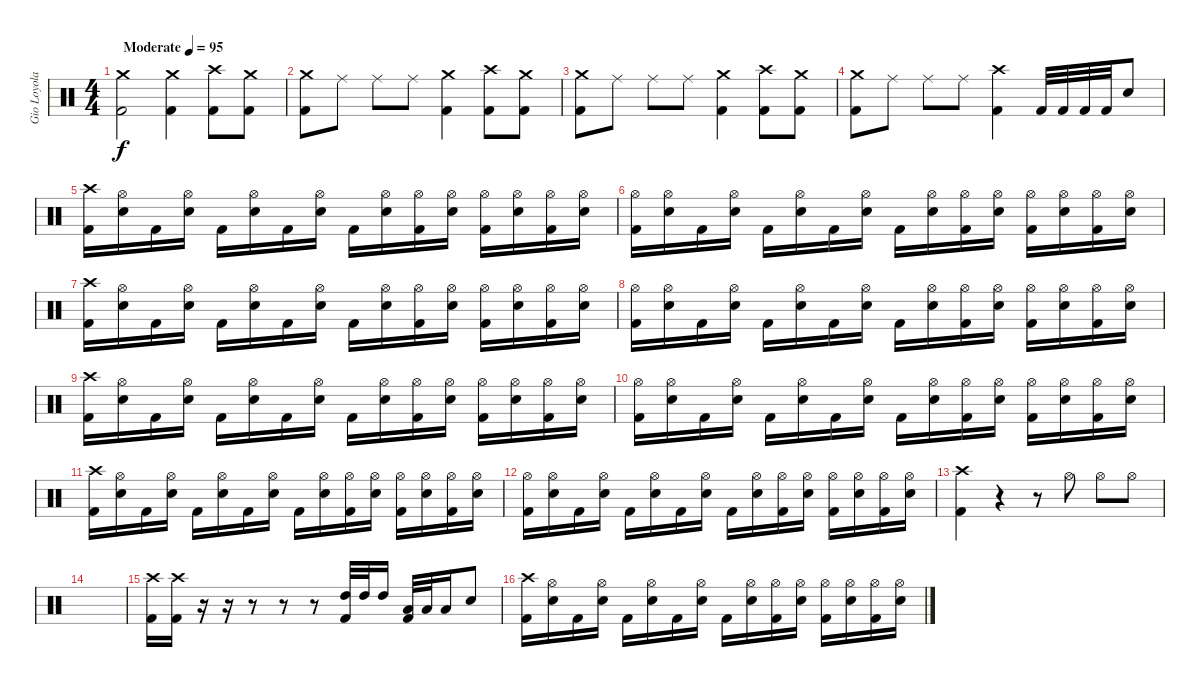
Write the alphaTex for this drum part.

\track ("Gio Loyola" "Gio Loyola") {instrument percussion}
\staff {score}
\articulation defaults
\ts (4 4)
\tempo (95 "Moderate")
\clef neutral
\ks c
("Crash medium (hit)" "Kick (hit) 2").2{dy f} ("Crash medium (hit)" "Kick (hit) 2").4 ("Crash high (hit)" "Kick (hit) 2").8 ("Crash medium (hit)" "Kick (hit) 2").8 |
("Crash medium (hit)" "Kick (hit) 2").8 "Ride (middle)".8 "Ride (middle)".8 "Ride (middle)".8 ("Crash medium (hit)" "Kick (hit) 2").4 ("Crash high (hit)" "Kick (hit) 2").8 ("Crash medium (hit)" "Kick (hit) 2").8 |
("Crash medium (hit)" "Kick (hit) 2").8 "Ride (middle)".8 "Ride (middle)".8 "Ride (middle)".8 ("Crash medium (hit)" "Kick (hit) 2").4 ("Crash high (hit)" "Kick (hit) 2").8 ("Crash medium (hit)" "Kick (hit) 2").8 |
("Crash medium (hit)" "Kick (hit) 2").8 "Ride (middle)".8 "Ride (middle)".8 "Ride (middle)".8 ("Crash high (hit)" "Kick (hit) 2").4 "Kick (hit) 2".32 "Kick (hit) 2".32 "Kick (hit) 2".32 "Kick (hit) 2".32 "Snare (hit) 2".8 |
("Crash high (hit)" "Kick (hit) 2").16 ("Hi-Hat (open)" "Snare (hit) 2").16 "Kick (hit) 2".16 ("Hi-Hat (open)" "Snare (hit) 2").16 "Kick (hit) 2".16 ("Hi-Hat (open)" "Snare (hit) 2").16 "Kick (hit) 2".16 ("Hi-Hat (open)" "Snare (hit) 2").16 "Kick (hit) 2".16 ("Hi-Hat (open)" "Snare (hit) 2").16 ("Hi-Hat (open)" "Kick (hit) 2").16 ("Hi-Hat (open)" "Snare (hit) 2").16 ("Hi-Hat (open)" "Kick (hit) 2").16 ("Hi-Hat (open)" "Snare (hit) 2").16 ("Hi-Hat (open)" "Kick (hit) 2").16 ("Hi-Hat (open)" "Snare (hit) 2").16 |
("Hi-Hat (open)" "Kick (hit) 2").16 ("Hi-Hat (open)" "Snare (hit) 2").16 "Kick (hit) 2".16 ("Hi-Hat (open)" "Snare (hit) 2").16 "Kick (hit) 2".16 ("Hi-Hat (open)" "Snare (hit) 2").16 "Kick (hit) 2".16 ("Hi-Hat (open)" "Snare (hit) 2").16 "Kick (hit) 2".16 ("Hi-Hat (open)" "Snare (hit) 2").16 ("Hi-Hat (open)" "Kick (hit) 2").16 ("Hi-Hat (open)" "Snare (hit) 2").16 ("Hi-Hat (open)" "Kick (hit) 2").16 ("Hi-Hat (open)" "Snare (hit) 2").16 ("Hi-Hat (open)" "Kick (hit) 2").16 ("Hi-Hat (open)" "Snare (hit) 2").16 |
("Crash high (hit)" "Kick (hit) 2").16 ("Hi-Hat (open)" "Snare (hit) 2").16 "Kick (hit) 2".16 ("Hi-Hat (open)" "Snare (hit) 2").16 "Kick (hit) 2".16 ("Hi-Hat (open)" "Snare (hit) 2").16 "Kick (hit) 2".16 ("Hi-Hat (open)" "Snare (hit) 2").16 "Kick (hit) 2".16 ("Hi-Hat (open)" "Snare (hit) 2").16 ("Hi-Hat (open)" "Kick (hit) 2").16 ("Hi-Hat (open)" "Snare (hit) 2").16 ("Hi-Hat (open)" "Kick (hit) 2").16 ("Hi-Hat (open)" "Snare (hit) 2").16 ("Hi-Hat (open)" "Kick (hit) 2").16 ("Hi-Hat (open)" "Snare (hit) 2").16 |
("Hi-Hat (open)" "Kick (hit) 2").16 ("Hi-Hat (open)" "Snare (hit) 2").16 "Kick (hit) 2".16 ("Hi-Hat (open)" "Snare (hit) 2").16 "Kick (hit) 2".16 ("Hi-Hat (open)" "Snare (hit) 2").16 "Kick (hit) 2".16 ("Hi-Hat (open)" "Snare (hit) 2").16 "Kick (hit) 2".16 ("Hi-Hat (open)" "Snare (hit) 2").16 ("Hi-Hat (open)" "Kick (hit) 2").16 ("Hi-Hat (open)" "Snare (hit) 2").16 ("Hi-Hat (open)" "Kick (hit) 2").16 ("Hi-Hat (open)" "Snare (hit) 2").16 ("Hi-Hat (open)" "Kick (hit) 2").16 ("Hi-Hat (open)" "Snare (hit) 2").16 |
("Crash high (hit)" "Kick (hit) 2").16 ("Hi-Hat (open)" "Snare (hit) 2").16 "Kick (hit) 2".16 ("Hi-Hat (open)" "Snare (hit) 2").16 "Kick (hit) 2".16 ("Hi-Hat (open)" "Snare (hit) 2").16 "Kick (hit) 2".16 ("Hi-Hat (open)" "Snare (hit) 2").16 "Kick (hit) 2".16 ("Hi-Hat (open)" "Snare (hit) 2").16 ("Hi-Hat (open)" "Kick (hit) 2").16 ("Hi-Hat (open)" "Snare (hit) 2").16 ("Hi-Hat (open)" "Kick (hit) 2").16 ("Hi-Hat (open)" "Snare (hit) 2").16 ("Hi-Hat (open)" "Kick (hit) 2").16 ("Hi-Hat (open)" "Snare (hit) 2").16 |
("Hi-Hat (open)" "Kick (hit) 2").16 ("Hi-Hat (open)" "Snare (hit) 2").16 "Kick (hit) 2".16 ("Hi-Hat (open)" "Snare (hit) 2").16 "Kick (hit) 2".16 ("Hi-Hat (open)" "Snare (hit) 2").16 "Kick (hit) 2".16 ("Hi-Hat (open)" "Snare (hit) 2").16 "Kick (hit) 2".16 ("Hi-Hat (open)" "Snare (hit) 2").16 ("Hi-Hat (open)" "Kick (hit) 2").16 ("Hi-Hat (open)" "Snare (hit) 2").16 ("Hi-Hat (open)" "Kick (hit) 2").16 ("Hi-Hat (open)" "Snare (hit) 2").16 ("Hi-Hat (open)" "Kick (hit) 2").16 ("Hi-Hat (open)" "Snare (hit) 2").16 |
("Crash high (hit)" "Kick (hit) 2").16 ("Hi-Hat (open)" "Snare (hit) 2").16 "Kick (hit) 2".16 ("Hi-Hat (open)" "Snare (hit) 2").16 "Kick (hit) 2".16 ("Hi-Hat (open)" "Snare (hit) 2").16 "Kick (hit) 2".16 ("Hi-Hat (open)" "Snare (hit) 2").16 "Kick (hit) 2".16 ("Hi-Hat (open)" "Snare (hit) 2").16 ("Hi-Hat (open)" "Kick (hit) 2").16 ("Hi-Hat (open)" "Snare (hit) 2").16 ("Hi-Hat (open)" "Kick (hit) 2").16 ("Hi-Hat (open)" "Snare (hit) 2").16 ("Hi-Hat (open)" "Kick (hit) 2").16 ("Hi-Hat (open)" "Snare (hit) 2").16 |
("Hi-Hat (open)" "Kick (hit) 2").16 ("Hi-Hat (open)" "Snare (hit) 2").16 "Kick (hit) 2".16 ("Hi-Hat (open)" "Snare (hit) 2").16 "Kick (hit) 2".16 ("Hi-Hat (open)" "Snare (hit) 2").16 "Kick (hit) 2".16 ("Hi-Hat (open)" "Snare (hit) 2").16 "Kick (hit) 2".16 ("Hi-Hat (open)" "Snare (hit) 2").16 ("Hi-Hat (open)" "Kick (hit) 2").16 ("Hi-Hat (open)" "Snare (hit) 2").16 ("Hi-Hat (open)" "Kick (hit) 2").16 ("Hi-Hat (open)" "Snare (hit) 2").16 ("Hi-Hat (open)" "Kick (hit) 2").16 ("Hi-Hat (open)" "Snare (hit) 2").16 |
("Crash high (hit)" "Kick (hit) 2").4 r.4 r.8 "Hi-Hat (open)".8 "Hi-Hat (open)".8 "Hi-Hat (open)".8 |
|
("Crash high (hit)" "Kick (hit) 2").16 ("Crash high (hit)" "Kick (hit) 2").16 r.16 r.16 r.8 r.8 r.8 ("High Tom (hit)" "Kick (hit) 2").32 "High Tom (hit)".32 "High Tom (hit)".16 ("Low Tom (hit)" "Kick (hit) 2").32 "Low Tom (hit)".32 "Low Tom (hit)".16 "Snare (hit) 2".8 |
("Crash high (hit)" "Kick (hit) 2").16 ("Hi-Hat (open)" "Snare (hit) 2").16 "Kick (hit) 2".16 ("Hi-Hat (open)" "Snare (hit) 2").16 "Kick (hit) 2".16 ("Hi-Hat (open)" "Snare (hit) 2").16 "Kick (hit) 2".16 ("Hi-Hat (open)" "Snare (hit) 2").16 "Kick (hit) 2".16 ("Hi-Hat (open)" "Snare (hit) 2").16 ("Hi-Hat (open)" "Kick (hit) 2").16 ("Hi-Hat (open)" "Snare (hit) 2").16 ("Hi-Hat (open)" "Kick (hit) 2").16 ("Hi-Hat (open)" "Snare (hit) 2").16 ("Hi-Hat (open)" "Kick (hit) 2").16 ("Hi-Hat (open)" "Snare (hit) 2").16
